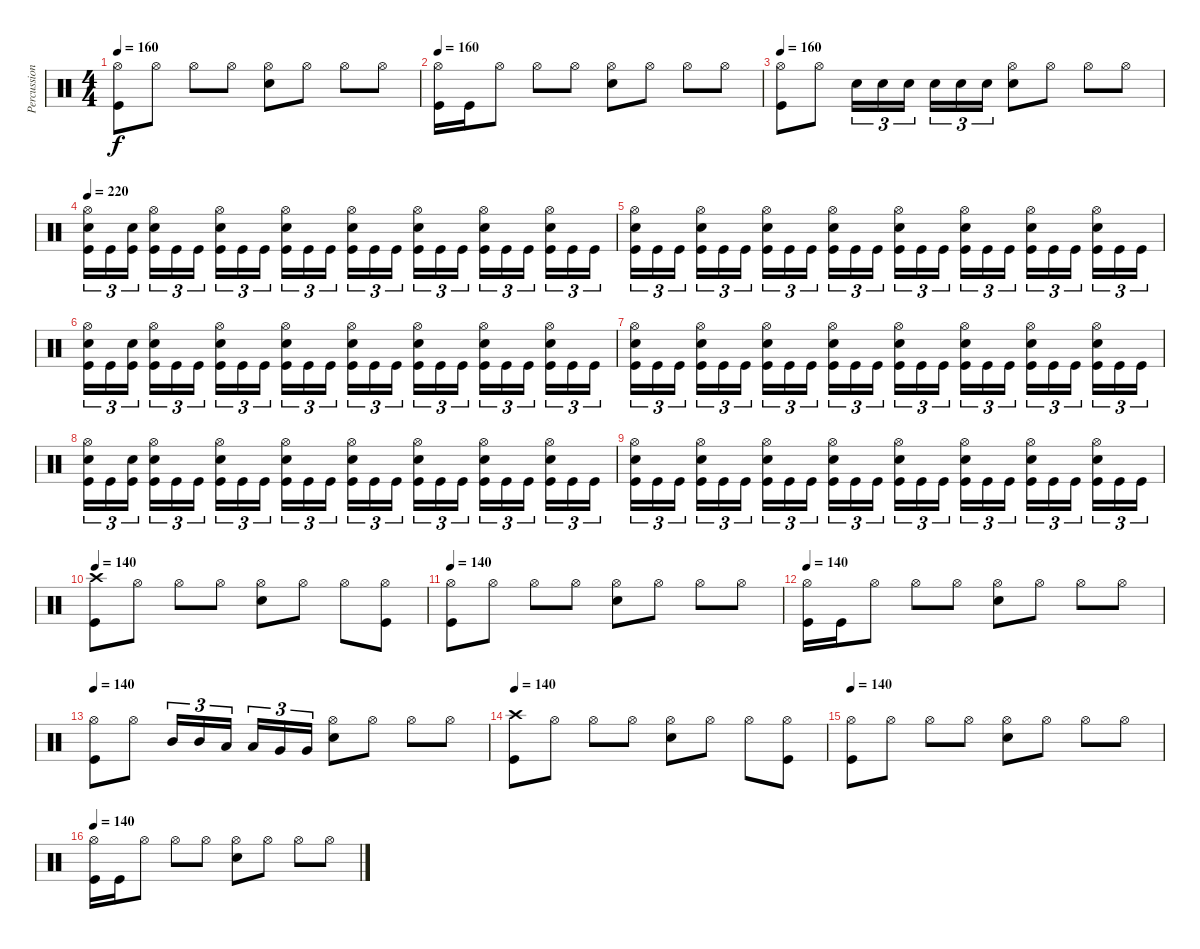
\track ("Percussion" "Percussion") {instrument percussion}
\staff {score}
\articulation defaults
\ts (4 4)
\tempo 160
\clef neutral
\ks c
("Hi-Hat (open)" "Kick (hit)").8{dy f} "Hi-Hat (open)".8 "Hi-Hat (open)".8 "Hi-Hat (open)".8 ("Hi-Hat (open)" "Electric Snare (hit)").8 "Hi-Hat (open)".8 "Hi-Hat (open)".8 "Hi-Hat (open)".8 |
\tempo 160
("Hi-Hat (open)" "Kick (hit)").16 "Kick (hit)".16 "Hi-Hat (open)".8 "Hi-Hat (open)".8 "Hi-Hat (open)".8 ("Hi-Hat (open)" "Electric Snare (hit)").8 "Hi-Hat (open)".8 "Hi-Hat (open)".8 "Hi-Hat (open)".8 |
\tempo 160
("Hi-Hat (open)" "Kick (hit)").8 "Hi-Hat (open)".8 "Electric Snare (hit)".16{tu (3 2)} "Electric Snare (hit)".16{tu (3 2)} "Electric Snare (hit)".16{tu (3 2)} "Electric Snare (hit)".16{tu (3 2)} "Electric Snare (hit)".16{tu (3 2)} "Electric Snare (hit)".16{tu (3 2)} ("Hi-Hat (open)" "Electric Snare (hit)").8 "Hi-Hat (open)".8 "Hi-Hat (open)".8 "Hi-Hat (open)".8 |
\tempo 220
("Hi-Hat (open)" "Electric Snare (hit)" "Kick (hit)").16{tu (3 2)} "Kick (hit)".16{tu (3 2)} ("Electric Snare (hit)" "Kick (hit)").16{tu (3 2)} ("Hi-Hat (open)" "Electric Snare (hit)" "Kick (hit)").16{tu (3 2)} "Kick (hit)".16{tu (3 2)} "Kick (hit)".16{tu (3 2)} ("Hi-Hat (open)" "Electric Snare (hit)" "Kick (hit)").16{tu (3 2)} "Kick (hit)".16{tu (3 2)} "Kick (hit)".16{tu (3 2)} ("Hi-Hat (open)" "Electric Snare (hit)" "Kick (hit)").16{tu (3 2)} "Kick (hit)".16{tu (3 2)} "Kick (hit)".16{tu (3 2)} ("Hi-Hat (open)" "Electric Snare (hit)" "Kick (hit)").16{tu (3 2)} "Kick (hit)".16{tu (3 2)} "Kick (hit)".16{tu (3 2)} ("Hi-Hat (open)" "Electric Snare (hit)" "Kick (hit)").16{tu (3 2)} "Kick (hit)".16{tu (3 2)} "Kick (hit)".16{tu (3 2)} ("Hi-Hat (open)" "Electric Snare (hit)" "Kick (hit)").16{tu (3 2)} "Kick (hit)".16{tu (3 2)} "Kick (hit)".16{tu (3 2)} ("Hi-Hat (open)" "Electric Snare (hit)" "Kick (hit)").16{tu (3 2)} "Kick (hit)".16{tu (3 2)} "Kick (hit)".16{tu (3 2)} |
("Hi-Hat (open)" "Electric Snare (hit)" "Kick (hit)").16{tu (3 2)} "Kick (hit)".16{tu (3 2)} "Kick (hit)".16{tu (3 2)} ("Hi-Hat (open)" "Electric Snare (hit)" "Kick (hit)").16{tu (3 2)} "Kick (hit)".16{tu (3 2)} "Kick (hit)".16{tu (3 2)} ("Hi-Hat (open)" "Electric Snare (hit)" "Kick (hit)").16{tu (3 2)} "Kick (hit)".16{tu (3 2)} "Kick (hit)".16{tu (3 2)} ("Hi-Hat (open)" "Electric Snare (hit)" "Kick (hit)").16{tu (3 2)} "Kick (hit)".16{tu (3 2)} "Kick (hit)".16{tu (3 2)} ("Hi-Hat (open)" "Electric Snare (hit)" "Kick (hit)").16{tu (3 2)} "Kick (hit)".16{tu (3 2)} "Kick (hit)".16{tu (3 2)} ("Hi-Hat (open)" "Electric Snare (hit)" "Kick (hit)").16{tu (3 2)} "Kick (hit)".16{tu (3 2)} "Kick (hit)".16{tu (3 2)} ("Hi-Hat (open)" "Electric Snare (hit)" "Kick (hit)").16{tu (3 2)} "Kick (hit)".16{tu (3 2)} "Kick (hit)".16{tu (3 2)} ("Hi-Hat (open)" "Electric Snare (hit)" "Kick (hit)").16{tu (3 2)} "Kick (hit)".16{tu (3 2)} "Kick (hit)".16{tu (3 2)} |
("Hi-Hat (open)" "Electric Snare (hit)" "Kick (hit)").16{tu (3 2)} "Kick (hit)".16{tu (3 2)} ("Electric Snare (hit)" "Kick (hit)").16{tu (3 2)} ("Hi-Hat (open)" "Electric Snare (hit)" "Kick (hit)").16{tu (3 2)} "Kick (hit)".16{tu (3 2)} "Kick (hit)".16{tu (3 2)} ("Hi-Hat (open)" "Electric Snare (hit)" "Kick (hit)").16{tu (3 2)} "Kick (hit)".16{tu (3 2)} "Kick (hit)".16{tu (3 2)} ("Hi-Hat (open)" "Electric Snare (hit)" "Kick (hit)").16{tu (3 2)} "Kick (hit)".16{tu (3 2)} "Kick (hit)".16{tu (3 2)} ("Hi-Hat (open)" "Electric Snare (hit)" "Kick (hit)").16{tu (3 2)} "Kick (hit)".16{tu (3 2)} "Kick (hit)".16{tu (3 2)} ("Hi-Hat (open)" "Electric Snare (hit)" "Kick (hit)").16{tu (3 2)} "Kick (hit)".16{tu (3 2)} "Kick (hit)".16{tu (3 2)} ("Hi-Hat (open)" "Electric Snare (hit)" "Kick (hit)").16{tu (3 2)} "Kick (hit)".16{tu (3 2)} "Kick (hit)".16{tu (3 2)} ("Hi-Hat (open)" "Electric Snare (hit)" "Kick (hit)").16{tu (3 2)} "Kick (hit)".16{tu (3 2)} "Kick (hit)".16{tu (3 2)} |
("Hi-Hat (open)" "Electric Snare (hit)" "Kick (hit)").16{tu (3 2)} "Kick (hit)".16{tu (3 2)} "Kick (hit)".16{tu (3 2)} ("Hi-Hat (open)" "Electric Snare (hit)" "Kick (hit)").16{tu (3 2)} "Kick (hit)".16{tu (3 2)} "Kick (hit)".16{tu (3 2)} ("Hi-Hat (open)" "Electric Snare (hit)" "Kick (hit)").16{tu (3 2)} "Kick (hit)".16{tu (3 2)} "Kick (hit)".16{tu (3 2)} ("Hi-Hat (open)" "Electric Snare (hit)" "Kick (hit)").16{tu (3 2)} "Kick (hit)".16{tu (3 2)} "Kick (hit)".16{tu (3 2)} ("Hi-Hat (open)" "Electric Snare (hit)" "Kick (hit)").16{tu (3 2)} "Kick (hit)".16{tu (3 2)} "Kick (hit)".16{tu (3 2)} ("Hi-Hat (open)" "Electric Snare (hit)" "Kick (hit)").16{tu (3 2)} "Kick (hit)".16{tu (3 2)} "Kick (hit)".16{tu (3 2)} ("Hi-Hat (open)" "Electric Snare (hit)" "Kick (hit)").16{tu (3 2)} "Kick (hit)".16{tu (3 2)} "Kick (hit)".16{tu (3 2)} ("Hi-Hat (open)" "Electric Snare (hit)" "Kick (hit)").16{tu (3 2)} "Kick (hit)".16{tu (3 2)} "Kick (hit)".16{tu (3 2)} |
("Hi-Hat (open)" "Electric Snare (hit)" "Kick (hit)").16{tu (3 2)} "Kick (hit)".16{tu (3 2)} ("Electric Snare (hit)" "Kick (hit)").16{tu (3 2)} ("Hi-Hat (open)" "Electric Snare (hit)" "Kick (hit)").16{tu (3 2)} "Kick (hit)".16{tu (3 2)} "Kick (hit)".16{tu (3 2)} ("Hi-Hat (open)" "Electric Snare (hit)" "Kick (hit)").16{tu (3 2)} "Kick (hit)".16{tu (3 2)} "Kick (hit)".16{tu (3 2)} ("Hi-Hat (open)" "Electric Snare (hit)" "Kick (hit)").16{tu (3 2)} "Kick (hit)".16{tu (3 2)} "Kick (hit)".16{tu (3 2)} ("Hi-Hat (open)" "Electric Snare (hit)" "Kick (hit)").16{tu (3 2)} "Kick (hit)".16{tu (3 2)} "Kick (hit)".16{tu (3 2)} ("Hi-Hat (open)" "Electric Snare (hit)" "Kick (hit)").16{tu (3 2)} "Kick (hit)".16{tu (3 2)} "Kick (hit)".16{tu (3 2)} ("Hi-Hat (open)" "Electric Snare (hit)" "Kick (hit)").16{tu (3 2)} "Kick (hit)".16{tu (3 2)} "Kick (hit)".16{tu (3 2)} ("Hi-Hat (open)" "Electric Snare (hit)" "Kick (hit)").16{tu (3 2)} "Kick (hit)".16{tu (3 2)} "Kick (hit)".16{tu (3 2)} |
("Hi-Hat (open)" "Electric Snare (hit)" "Kick (hit)").16{tu (3 2)} "Kick (hit)".16{tu (3 2)} "Kick (hit)".16{tu (3 2)} ("Hi-Hat (open)" "Electric Snare (hit)" "Kick (hit)").16{tu (3 2)} "Kick (hit)".16{tu (3 2)} "Kick (hit)".16{tu (3 2)} ("Hi-Hat (open)" "Electric Snare (hit)" "Kick (hit)").16{tu (3 2)} "Kick (hit)".16{tu (3 2)} "Kick (hit)".16{tu (3 2)} ("Hi-Hat (open)" "Electric Snare (hit)" "Kick (hit)").16{tu (3 2)} "Kick (hit)".16{tu (3 2)} "Kick (hit)".16{tu (3 2)} ("Hi-Hat (open)" "Electric Snare (hit)" "Kick (hit)").16{tu (3 2)} "Kick (hit)".16{tu (3 2)} "Kick (hit)".16{tu (3 2)} ("Hi-Hat (open)" "Electric Snare (hit)" "Kick (hit)").16{tu (3 2)} "Kick (hit)".16{tu (3 2)} "Kick (hit)".16{tu (3 2)} ("Hi-Hat (open)" "Electric Snare (hit)" "Kick (hit)").16{tu (3 2)} "Kick (hit)".16{tu (3 2)} "Kick (hit)".16{tu (3 2)} ("Hi-Hat (open)" "Electric Snare (hit)" "Kick (hit)").16{tu (3 2)} "Kick (hit)".16{tu (3 2)} "Kick (hit)".16{tu (3 2)} |
\tempo 140
("Crash high (hit)" "Kick (hit)").8 "Hi-Hat (open)".8 "Hi-Hat (open)".8 "Hi-Hat (open)".8 ("Hi-Hat (open)" "Electric Snare (hit)").8 "Hi-Hat (open)".8 "Hi-Hat (open)".8 ("Hi-Hat (open)" "Kick (hit)").8 |
\tempo 140
("Hi-Hat (open)" "Kick (hit)").8 "Hi-Hat (open)".8 "Hi-Hat (open)".8 "Hi-Hat (open)".8 ("Hi-Hat (open)" "Electric Snare (hit)").8 "Hi-Hat (open)".8 "Hi-Hat (open)".8 "Hi-Hat (open)".8 |
\tempo 140
("Hi-Hat (open)" "Kick (hit)").16 "Kick (hit)".16 "Hi-Hat (open)".8 "Hi-Hat (open)".8 "Hi-Hat (open)".8 ("Hi-Hat (open)" "Electric Snare (hit)").8 "Hi-Hat (open)".8 "Hi-Hat (open)".8 "Hi-Hat (open)".8 |
\tempo 140
("Hi-Hat (open)" "Kick (hit)").8 "Hi-Hat (open)".8 "Mid Tom (hit)".16{tu (3 2)} "Mid Tom (hit)".16{tu (3 2)} "Low Tom (hit)".16{tu (3 2)} "Low Tom (hit)".16{tu (3 2)} "Very Low Tom (hit)".16{tu (3 2)} "Very Low Tom (hit)".16{tu (3 2)} ("Hi-Hat (open)" "Electric Snare (hit)").8 "Hi-Hat (open)".8 "Hi-Hat (open)".8 "Hi-Hat (open)".8 |
\tempo 140
("Crash high (hit)" "Kick (hit)").8 "Hi-Hat (open)".8 "Hi-Hat (open)".8 "Hi-Hat (open)".8 ("Hi-Hat (open)" "Electric Snare (hit)").8 "Hi-Hat (open)".8 "Hi-Hat (open)".8 ("Hi-Hat (open)" "Kick (hit)").8 |
\tempo 140
("Hi-Hat (open)" "Kick (hit)").8 "Hi-Hat (open)".8 "Hi-Hat (open)".8 "Hi-Hat (open)".8 ("Hi-Hat (open)" "Electric Snare (hit)").8 "Hi-Hat (open)".8 "Hi-Hat (open)".8 "Hi-Hat (open)".8 |
\tempo 140
("Hi-Hat (open)" "Kick (hit)").16 "Kick (hit)".16 "Hi-Hat (open)".8 "Hi-Hat (open)".8 "Hi-Hat (open)".8 ("Hi-Hat (open)" "Electric Snare (hit)").8 "Hi-Hat (open)".8 "Hi-Hat (open)".8 "Hi-Hat (open)".8
